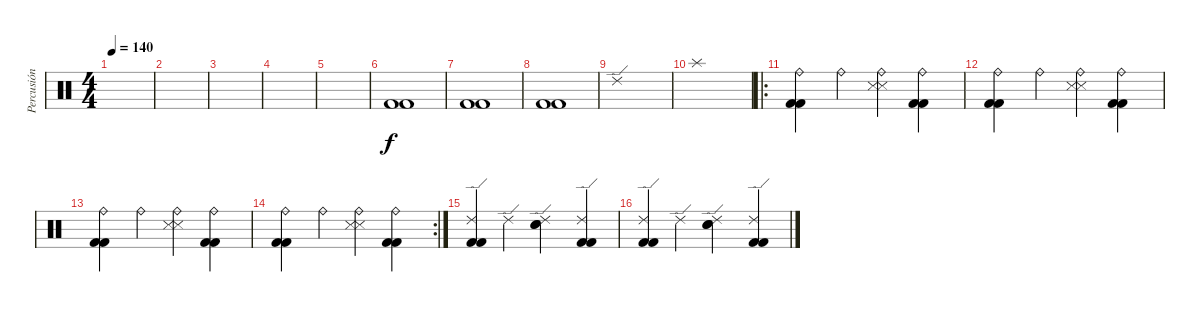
\track ("Percusión" "Percusión") {instrument percussion}
\staff {score}
\articulation defaults
\ts (4 4)
\tempo 140
\clef neutral
\ks c
|
|
|
|
|
("Kick (hit) 2" "Kick (hit) 2").1 |
("Kick (hit) 2" "Kick (hit) 2").1 |
("Kick (hit) 2" "Kick (hit) 2").1 |
"Ride (edge) 2".1 |
"Splash (hit)".1 |
\ro
("Kick (hit) 2" "Kick (hit) 2" "Ride (bell)").4 "Ride (bell)".4 ("Snare (side stick) 3" "Snare (side stick) 3" "Ride (bell)").4 ("Kick (hit) 2" "Kick (hit) 2" "Ride (bell)").4 |
("Kick (hit) 2" "Kick (hit) 2" "Ride (bell)").4 "Ride (bell)".4 ("Snare (side stick) 3" "Snare (side stick) 3" "Ride (bell)").4 ("Kick (hit) 2" "Kick (hit) 2" "Ride (bell)").4 |
("Kick (hit) 2" "Kick (hit) 2" "Ride (bell)").4 "Ride (bell)".4 ("Snare (side stick) 3" "Snare (side stick) 3" "Ride (bell)").4 ("Kick (hit) 2" "Kick (hit) 2" "Ride (bell)").4 |
\rc 2
("Kick (hit) 2" "Kick (hit) 2" "Ride (bell)").4 "Ride (bell)".4 ("Snare (side stick) 3" "Snare (side stick) 3" "Ride (bell)").4 ("Kick (hit) 2" "Kick (hit) 2" "Ride (bell)").4 |
("Kick (hit) 2" "Kick (hit) 2" "Ride (edge) 2").4 "Ride (edge) 2".4 ("Electric Snare (hit)" "Electric Snare (hit)" "Ride (edge) 2").4 ("Kick (hit) 2" "Kick (hit) 2" "Ride (edge) 2").4 |
("Kick (hit) 2" "Kick (hit) 2" "Ride (edge) 2").4 "Ride (edge) 2".4 ("Electric Snare (hit)" "Electric Snare (hit)" "Ride (edge) 2").4 ("Kick (hit) 2" "Kick (hit) 2" "Ride (edge) 2").4
